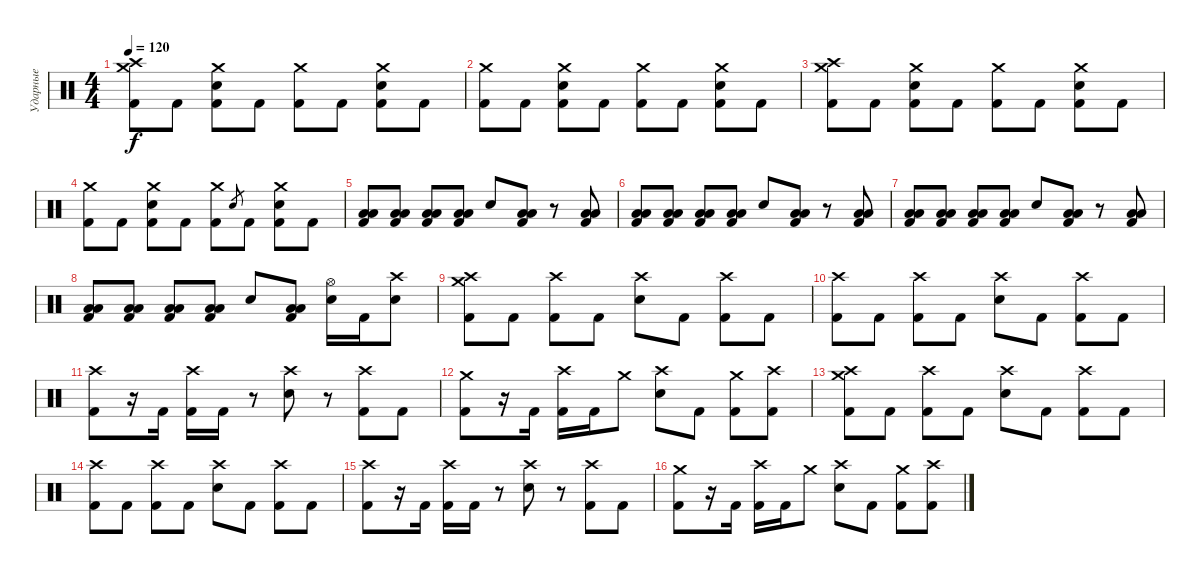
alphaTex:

\track ("Ударные" "Ударные") {instrument percussion}
\staff {score}
\articulation defaults
\ts (4 4)
\tempo 120
\clef neutral
\ks c
("Crash medium (hit)" "Crash high (hit)" "Kick (hit) 2").8{dy f} "Kick (hit) 2".8 ("Crash medium (hit)" "Electric Snare (hit)" "Kick (hit) 2").8 "Kick (hit) 2".8 ("Crash medium (hit)" "Kick (hit) 2").8 "Kick (hit) 2".8 ("Crash medium (hit)" "Electric Snare (hit)" "Kick (hit) 2").8 "Kick (hit) 2".8 |
("Crash medium (hit)" "Kick (hit) 2").8 "Kick (hit) 2".8 ("Crash medium (hit)" "Electric Snare (hit)" "Kick (hit) 2").8 "Kick (hit) 2".8 ("Crash medium (hit)" "Kick (hit) 2").8 "Kick (hit) 2".8 ("Crash medium (hit)" "Electric Snare (hit)" "Kick (hit) 2").8 "Kick (hit) 2".8 |
("Crash medium (hit)" "Crash high (hit)" "Kick (hit) 2").8 "Kick (hit) 2".8 ("Crash medium (hit)" "Electric Snare (hit)" "Kick (hit) 2").8 "Kick (hit) 2".8 ("Crash medium (hit)" "Kick (hit) 2").8 "Kick (hit) 2".8 ("Crash medium (hit)" "Electric Snare (hit)" "Kick (hit) 2").8 "Kick (hit) 2".8 |
("Crash medium (hit)" "Kick (hit) 2").8 "Kick (hit) 2".8 ("Crash medium (hit)" "Electric Snare (hit)" "Kick (hit) 2").8 "Kick (hit) 2".8 ("Crash medium (hit)" "Kick (hit) 2").8 "Electric Snare (hit)".8{gr} "Kick (hit) 2".8 ("Crash medium (hit)" "Electric Snare (hit)" "Kick (hit) 2").8 "Kick (hit) 2".8 |
("Low Floor Tom (hit)" "Low Tom (hit)" "Kick (hit) 2").8 ("Low Floor Tom (hit)" "Low Tom (hit)" "Kick (hit) 2").8 ("Low Floor Tom (hit)" "Low Tom (hit)" "Kick (hit) 2").8 ("Low Floor Tom (hit)" "Low Tom (hit)" "Kick (hit) 2").8 "Electric Snare (hit)".8 ("Low Floor Tom (hit)" "Low Tom (hit)" "Kick (hit) 2").8 r.8 ("Low Floor Tom (hit)" "Low Tom (hit)" "Kick (hit) 2").8 |
("Low Floor Tom (hit)" "Low Tom (hit)" "Kick (hit) 2").8 ("Low Floor Tom (hit)" "Low Tom (hit)" "Kick (hit) 2").8 ("Low Floor Tom (hit)" "Low Tom (hit)" "Kick (hit) 2").8 ("Low Floor Tom (hit)" "Low Tom (hit)" "Kick (hit) 2").8 "Electric Snare (hit)".8 ("Low Floor Tom (hit)" "Low Tom (hit)" "Kick (hit) 2").8 r.8 ("Low Floor Tom (hit)" "Low Tom (hit)" "Kick (hit) 2").8 |
("Low Floor Tom (hit)" "Low Tom (hit)" "Kick (hit) 2").8 ("Low Floor Tom (hit)" "Low Tom (hit)" "Kick (hit) 2").8 ("Low Floor Tom (hit)" "Low Tom (hit)" "Kick (hit) 2").8 ("Low Floor Tom (hit)" "Low Tom (hit)" "Kick (hit) 2").8 "Electric Snare (hit)".8 ("Low Floor Tom (hit)" "Low Tom (hit)" "Kick (hit) 2").8 r.8 ("Low Floor Tom (hit)" "Low Tom (hit)" "Kick (hit) 2").8 |
("Low Floor Tom (hit)" "Low Tom (hit)" "Kick (hit) 2").8 ("Low Floor Tom (hit)" "Low Tom (hit)" "Kick (hit) 2").8 ("Low Floor Tom (hit)" "Low Tom (hit)" "Kick (hit) 2").8 ("Low Floor Tom (hit)" "Low Tom (hit)" "Kick (hit) 2").8 "Electric Snare (hit)".8 ("Low Floor Tom (hit)" "Low Tom (hit)" "Kick (hit) 2").8 ("Hi-Hat (open)" "Electric Snare (hit)").16 "Kick (hit) 2".16 ("Crash high (hit)" "Electric Snare (hit)").8 |
("Crash medium (hit)" "Crash high (hit)" "Kick (hit) 2").8 "Kick (hit) 2".8 ("Crash high (hit)" "Kick (hit) 2").8 "Kick (hit) 2".8 ("Crash high (hit)" "Electric Snare (hit)").8 "Kick (hit) 2".8 ("Crash high (hit)" "Kick (hit) 2").8 "Kick (hit) 2".8 |
("Crash high (hit)" "Kick (hit) 2").8 "Kick (hit) 2".8 ("Crash high (hit)" "Kick (hit) 2").8 "Kick (hit) 2".8 ("Crash high (hit)" "Electric Snare (hit)").8 "Kick (hit) 2".8 ("Crash high (hit)" "Kick (hit) 2").8 "Kick (hit) 2".8 |
("Crash high (hit)" "Kick (hit) 2").8 r.16 "Kick (hit) 2".16 ("Crash high (hit)" "Kick (hit) 2").16 "Kick (hit) 2".16 r.8 ("Crash high (hit)" "Electric Snare (hit)").8 r.8 ("Crash high (hit)" "Kick (hit) 2").8 "Kick (hit) 2".8 |
("Crash medium (hit)" "Kick (hit) 2").8 r.16 "Kick (hit) 2".16 ("Crash high (hit)" "Kick (hit) 2").16 "Kick (hit) 2".16 "Crash medium (hit)".8 ("Crash high (hit)" "Electric Snare (hit)").8 "Kick (hit) 2".8 ("Crash medium (hit)" "Kick (hit) 2").8 ("Crash high (hit)" "Kick (hit) 2").8 |
("Crash medium (hit)" "Crash high (hit)" "Kick (hit) 2").8 "Kick (hit) 2".8 ("Crash high (hit)" "Kick (hit) 2").8 "Kick (hit) 2".8 ("Crash high (hit)" "Electric Snare (hit)").8 "Kick (hit) 2".8 ("Crash high (hit)" "Kick (hit) 2").8 "Kick (hit) 2".8 |
("Crash high (hit)" "Kick (hit) 2").8 "Kick (hit) 2".8 ("Crash high (hit)" "Kick (hit) 2").8 "Kick (hit) 2".8 ("Crash high (hit)" "Electric Snare (hit)").8 "Kick (hit) 2".8 ("Crash high (hit)" "Kick (hit) 2").8 "Kick (hit) 2".8 |
("Crash high (hit)" "Kick (hit) 2").8 r.16 "Kick (hit) 2".16 ("Crash high (hit)" "Kick (hit) 2").16 "Kick (hit) 2".16 r.8 ("Crash high (hit)" "Electric Snare (hit)").8 r.8 ("Crash high (hit)" "Kick (hit) 2").8 "Kick (hit) 2".8 |
("Crash medium (hit)" "Kick (hit) 2").8 r.16 "Kick (hit) 2".16 ("Crash high (hit)" "Kick (hit) 2").16 "Kick (hit) 2".16 "Crash medium (hit)".8 ("Crash high (hit)" "Electric Snare (hit)").8 "Kick (hit) 2".8 ("Crash medium (hit)" "Kick (hit) 2").8 ("Crash high (hit)" "Kick (hit) 2").8
